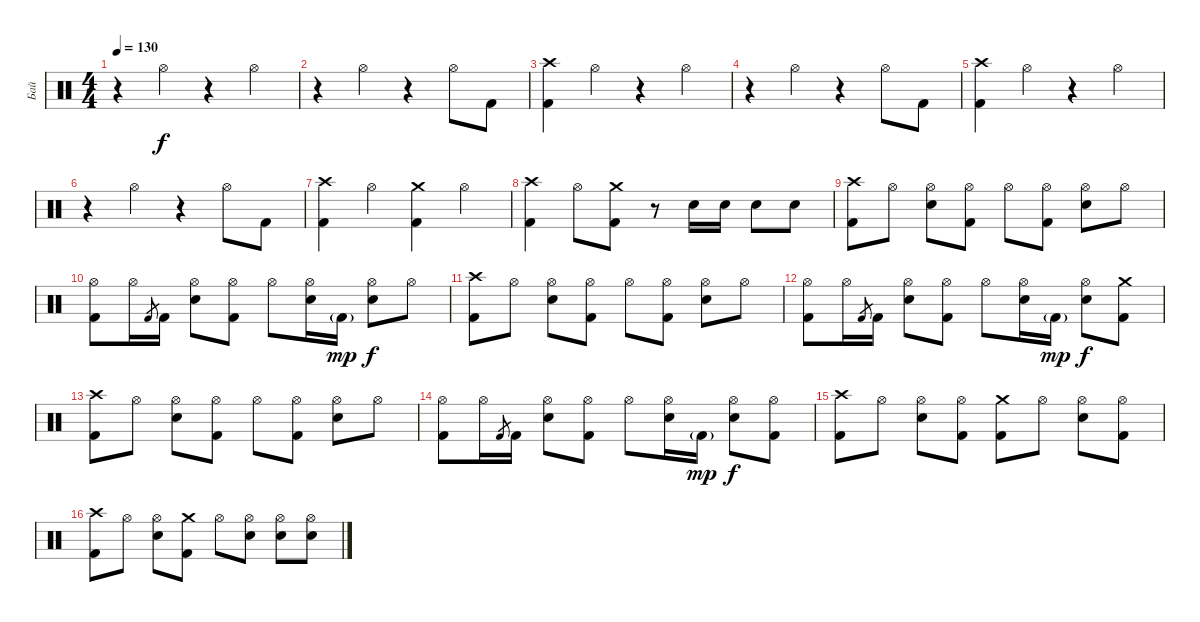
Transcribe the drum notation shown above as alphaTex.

\track ("Бай" "Бай") {instrument percussion}
\staff {score}
\articulation defaults
\ts (4 4)
\tempo 130
\clef neutral
\ks c
r.4{dy f} "Hi-Hat (open)".4 r.4 "Hi-Hat (open)".4 |
r.4 "Hi-Hat (open)".4 r.4 "Hi-Hat (open)".8 "Kick (hit) 2".8 |
("Crash high (hit)" "Kick (hit) 2").4 "Hi-Hat (open)".4 r.4 "Hi-Hat (open)".4 |
r.4 "Hi-Hat (open)".4 r.4 "Hi-Hat (open)".8 "Kick (hit) 2".8 |
("Crash high (hit)" "Kick (hit) 2").4 "Hi-Hat (open)".4 r.4 "Hi-Hat (open)".4 |
r.4 "Hi-Hat (open)".4 r.4 "Hi-Hat (open)".8 "Kick (hit) 2".8 |
("Crash high (hit)" "Kick (hit) 2").4 "Hi-Hat (open)".4 ("Crash medium (hit)" "Kick (hit) 2").4 "Hi-Hat (open)".4 |
("Crash high (hit)" "Kick (hit) 2").4 "Hi-Hat (open)".8 ("Crash medium (hit)" "Kick (hit) 2").8 r.8 "Electric Snare (hit)".16 "Electric Snare (hit)".16 "Electric Snare (hit)".8 "Electric Snare (hit)".8 |
("Kick (hit) 2" "Crash high (hit)").8 "Hi-Hat (open)".8 ("Electric Snare (hit)" "Hi-Hat (open)").8 ("Kick (hit) 2" "Hi-Hat (open)").8 "Hi-Hat (open)".8 ("Kick (hit) 2" "Hi-Hat (open)").8 ("Electric Snare (hit)" "Hi-Hat (open)").8 "Hi-Hat (open)".8 |
("Kick (hit) 2" "Hi-Hat (open)").8 "Hi-Hat (open)".16 "Kick (hit) 2".8{gr} "Kick (hit) 2".16 ("Electric Snare (hit)" "Hi-Hat (open)").8 ("Kick (hit) 2" "Hi-Hat (open)").8 "Hi-Hat (open)".8 ("Electric Snare (hit)" "Hi-Hat (open)").16 "Kick (hit) 2"{g}.16{dy mp} ("Electric Snare (hit)" "Hi-Hat (open)").8{dy f} "Hi-Hat (open)".8 |
("Kick (hit) 2" "Crash high (hit)").8 "Hi-Hat (open)".8 ("Electric Snare (hit)" "Hi-Hat (open)").8 ("Kick (hit) 2" "Hi-Hat (open)").8 "Hi-Hat (open)".8 ("Kick (hit) 2" "Hi-Hat (open)").8 ("Electric Snare (hit)" "Hi-Hat (open)").8 "Hi-Hat (open)".8 |
("Kick (hit) 2" "Hi-Hat (open)").8 "Hi-Hat (open)".16 "Kick (hit) 2".8{gr} "Kick (hit) 2".16 ("Electric Snare (hit)" "Hi-Hat (open)").8 ("Kick (hit) 2" "Hi-Hat (open)").8 "Hi-Hat (open)".8 ("Electric Snare (hit)" "Hi-Hat (open)").16 "Kick (hit) 2"{g}.16{dy mp} ("Electric Snare (hit)" "Hi-Hat (open)").8{dy f} ("Kick (hit) 2" "Crash medium (hit)").8 |
("Kick (hit) 2" "Crash high (hit)").8 "Hi-Hat (open)".8 ("Electric Snare (hit)" "Hi-Hat (open)").8 ("Kick (hit) 2" "Hi-Hat (open)").8 "Hi-Hat (open)".8 ("Kick (hit) 2" "Hi-Hat (open)").8 ("Electric Snare (hit)" "Hi-Hat (open)").8 "Hi-Hat (open)".8 |
("Kick (hit) 2" "Hi-Hat (open)").8 "Hi-Hat (open)".16 "Kick (hit) 2".8{gr} "Kick (hit) 2".16 ("Electric Snare (hit)" "Hi-Hat (open)").8 ("Kick (hit) 2" "Hi-Hat (open)").8 "Hi-Hat (open)".8 ("Electric Snare (hit)" "Hi-Hat (open)").16 "Kick (hit) 2"{g}.16{dy mp} ("Electric Snare (hit)" "Hi-Hat (open)").8{dy f} ("Kick (hit) 2" "Hi-Hat (open)").8 |
("Kick (hit) 2" "Crash high (hit)").8 "Hi-Hat (open)".8 ("Electric Snare (hit)" "Hi-Hat (open)").8 ("Kick (hit) 2" "Hi-Hat (open)").8 ("Kick (hit) 2" "Crash medium (hit)").8 "Hi-Hat (open)".8 ("Electric Snare (hit)" "Hi-Hat (open)").8 ("Kick (hit) 2" "Hi-Hat (open)").8 |
("Kick (hit) 2" "Crash high (hit)").8 "Hi-Hat (open)".8 ("Electric Snare (hit)" "Hi-Hat (open)").8 ("Kick (hit) 2" "Crash medium (hit)").8 "Hi-Hat (open)".8 ("Electric Snare (hit)" "Hi-Hat (open)").8 ("Electric Snare (hit)" "Hi-Hat (open)").8 ("Electric Snare (hit)" "Hi-Hat (open)").8
